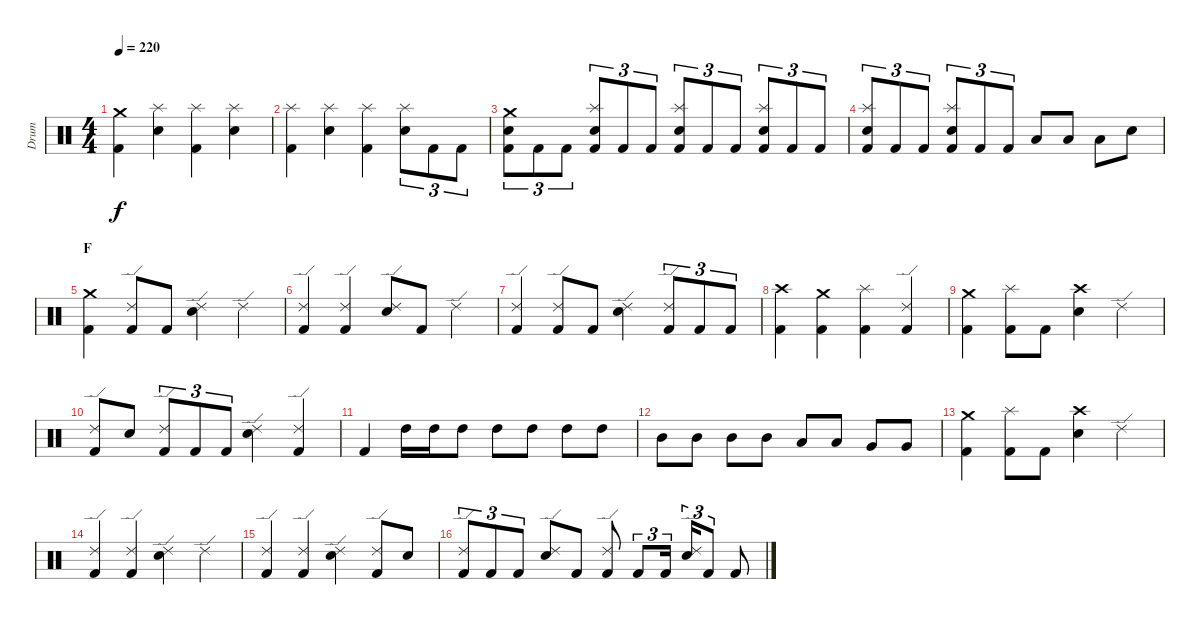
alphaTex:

\track ("Drum" "Drum") {instrument percussion}
\staff {score}
\articulation defaults
\ts (4 4)
\tempo 220
\clef neutral
\ks c
("Crash medium (hit)" "Kick (hit) 2").4{dy f} ("Splash (hit)" "Electric Snare (hit)").4 ("Splash (hit)" "Kick (hit) 2").4 ("Splash (hit)" "Electric Snare (hit)").4 |
("Splash (hit)" "Kick (hit) 2").4 ("Splash (hit)" "Electric Snare (hit)").4 ("Splash (hit)" "Kick (hit) 2").4 ("Splash (hit)" "Electric Snare (hit)").8{tu (3 2)} "Kick (hit) 2".8{tu (3 2)} "Kick (hit) 2".8{tu (3 2)} |
("Crash medium (hit)" "Electric Snare (hit)" "Kick (hit) 2").8{tu (3 2)} "Kick (hit) 2".8{tu (3 2)} "Kick (hit) 2".8{tu (3 2)} ("Splash (hit)" "Electric Snare (hit)" "Kick (hit) 2").8{tu (3 2)} "Kick (hit) 2".8{tu (3 2)} "Kick (hit) 2".8{tu (3 2)} ("Splash (hit)" "Electric Snare (hit)" "Kick (hit) 2").8{tu (3 2)} "Kick (hit) 2".8{tu (3 2)} "Kick (hit) 2".8{tu (3 2)} ("Splash (hit)" "Electric Snare (hit)" "Kick (hit) 2").8{tu (3 2)} "Kick (hit) 2".8{tu (3 2)} "Kick (hit) 2".8{tu (3 2)} |
("Splash (hit)" "Electric Snare (hit)" "Kick (hit) 2").8{tu (3 2)} "Kick (hit) 2".8{tu (3 2)} "Kick (hit) 2".8{tu (3 2)} ("Splash (hit)" "Electric Snare (hit)" "Kick (hit) 2").8{tu (3 2)} "Kick (hit) 2".8{tu (3 2)} "Kick (hit) 2".8{tu (3 2)} "Low Tom (hit)".8 "Low Tom (hit)".8 "Low Tom (hit)".8 "Electric Snare (hit)".8 |
\section ("" "F")
("Crash medium (hit)" "Kick (hit) 2").4 ("Ride (edge) 2" "Kick (hit) 2").8 "Kick (hit) 2".8 ("Ride (edge) 2" "Electric Snare (hit)").4 "Ride (edge) 2".4 |
("Ride (edge) 2" "Kick (hit) 2").4 ("Ride (edge) 2" "Kick (hit) 2").4 ("Ride (edge) 2" "Electric Snare (hit)").8 "Kick (hit) 2".8 "Ride (edge) 2".4 |
("Ride (edge) 2" "Kick (hit) 2").4 ("Ride (edge) 2" "Kick (hit) 2").8 "Kick (hit) 2".8 ("Ride (edge) 2" "Electric Snare (hit)").4 ("Ride (edge) 2" "Kick (hit) 2").8{tu (3 2)} "Kick (hit) 2".8{tu (3 2)} "Kick (hit) 2".8{tu (3 2)} |
("Crash high (hit)" "Kick (hit) 2").4 ("Crash medium (hit)" "Kick (hit) 2").4 ("Splash (hit)" "Kick (hit) 2").4 ("Ride (edge) 2" "Kick (hit) 2").4 |
("Crash medium (hit)" "Kick (hit) 2").4 ("Splash (hit)" "Kick (hit) 2").8 "Kick (hit) 2".8 ("Crash high (hit)" "Electric Snare (hit)").4 "Ride (edge) 2".4 |
("Ride (edge) 2" "Kick (hit) 2").8 "Electric Snare (hit)".8 ("Ride (edge) 2" "Kick (hit) 2").8{tu (3 2)} "Kick (hit) 2".8{tu (3 2)} "Kick (hit) 2".8{tu (3 2)} ("Ride (edge) 2" "Electric Snare (hit)").4 ("Ride (edge) 2" "Kick (hit) 2").4 |
"Kick (hit) 2".4 "High Tom (hit)".16 "High Tom (hit)".16 "High Tom (hit)".8 "High Tom (hit)".8 "High Tom (hit)".8 "High Tom (hit)".8 "High Tom (hit)".8 |
"Mid Tom (hit)".8 "Mid Tom (hit)".8 "Mid Tom (hit)".8 "Mid Tom (hit)".8 "Low Tom (hit)".8 "Low Tom (hit)".8 "Very Low Tom (hit)".8 "Very Low Tom (hit)".8 |
("Crash medium (hit)" "Kick (hit) 2").4 ("Splash (hit)" "Kick (hit) 2").8 "Kick (hit) 2".8 ("Crash high (hit)" "Electric Snare (hit)").4 "Ride (edge) 2".4 |
("Ride (edge) 2" "Kick (hit) 2").4 ("Ride (edge) 2" "Kick (hit) 2").4 ("Ride (edge) 2" "Electric Snare (hit)").4 "Ride (edge) 2".4 |
("Ride (edge) 2" "Kick (hit) 2").4 ("Ride (edge) 2" "Kick (hit) 2").4 ("Ride (edge) 2" "Electric Snare (hit)").4 ("Ride (edge) 2" "Kick (hit) 2").8 "Electric Snare (hit)".8 |
("Ride (edge) 2" "Kick (hit) 2").8{tu (3 2)} "Kick (hit) 2".8{tu (3 2)} "Kick (hit) 2".8{tu (3 2)} ("Ride (edge) 2" "Electric Snare (hit)").8 "Kick (hit) 2".8 ("Ride (edge) 2" "Kick (hit) 2").8 "Kick (hit) 2".8{tu (3 2)} "Kick (hit) 2".16{tu (3 2)} ("Ride (edge) 2" "Electric Snare (hit)").16{tu (3 2)} "Kick (hit) 2".8{tu (3 2)} "Kick (hit) 2".8
